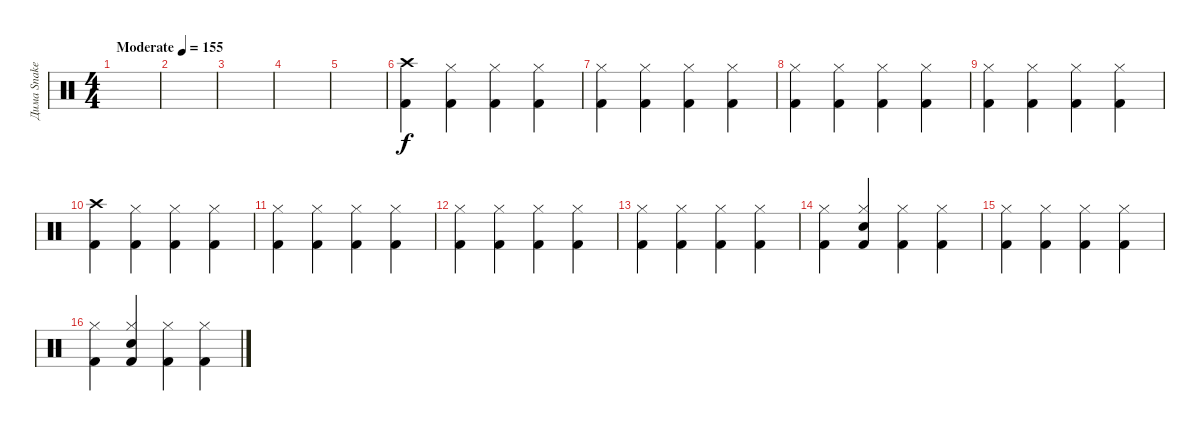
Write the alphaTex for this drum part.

\track ("Дима Snake Хакимов" "Дима Snake") {instrument percussion}
\staff {score}
\articulation defaults
\ts (4 4)
\tempo (155 "Moderate")
\clef neutral
\ks c
|
|
|
|
|
("Crash high (hit)" "Kick (hit) 2").4 ("Hi-Hat (closed)" "Kick (hit) 2").4 ("Hi-Hat (closed)" "Kick (hit) 2").4 ("Hi-Hat (closed)" "Kick (hit) 2").4 |
("Hi-Hat (closed)" "Kick (hit) 2").4 ("Hi-Hat (closed)" "Kick (hit) 2").4 ("Hi-Hat (closed)" "Kick (hit) 2").4 ("Hi-Hat (closed)" "Kick (hit) 2").4 |
("Hi-Hat (closed)" "Kick (hit) 2").4 ("Hi-Hat (closed)" "Kick (hit) 2").4 ("Hi-Hat (closed)" "Kick (hit) 2").4 ("Hi-Hat (closed)" "Kick (hit) 2").4 |
("Hi-Hat (closed)" "Kick (hit) 2").4 ("Hi-Hat (closed)" "Kick (hit) 2").4 ("Hi-Hat (closed)" "Kick (hit) 2").4 ("Hi-Hat (closed)" "Kick (hit) 2").4 |
("Crash high (hit)" "Kick (hit) 2").4 ("Hi-Hat (closed)" "Kick (hit) 2").4 ("Hi-Hat (closed)" "Kick (hit) 2").4 ("Hi-Hat (closed)" "Kick (hit) 2").4 |
("Hi-Hat (closed)" "Kick (hit) 2").4 ("Hi-Hat (closed)" "Kick (hit) 2").4 ("Hi-Hat (closed)" "Kick (hit) 2").4 ("Hi-Hat (closed)" "Kick (hit) 2").4 |
("Hi-Hat (closed)" "Kick (hit) 2").4 ("Hi-Hat (closed)" "Kick (hit) 2").4 ("Hi-Hat (closed)" "Kick (hit) 2").4 ("Hi-Hat (closed)" "Kick (hit) 2").4 |
("Hi-Hat (closed)" "Kick (hit) 2").4 ("Hi-Hat (closed)" "Kick (hit) 2").4 ("Hi-Hat (closed)" "Kick (hit) 2").4 ("Hi-Hat (closed)" "Kick (hit) 2").4 |
("Hi-Hat (closed)" "Kick (hit) 2").4 ("Hi-Hat (closed)" "Snare (hit) 2" "Kick (hit) 2").4 ("Hi-Hat (closed)" "Kick (hit) 2").4 ("Hi-Hat (closed)" "Kick (hit) 2").4 |
("Hi-Hat (closed)" "Kick (hit) 2").4 ("Hi-Hat (closed)" "Kick (hit) 2").4 ("Hi-Hat (closed)" "Kick (hit) 2").4 ("Hi-Hat (closed)" "Kick (hit) 2").4 |
("Hi-Hat (closed)" "Kick (hit) 2").4 ("Hi-Hat (closed)" "Snare (hit) 2" "Kick (hit) 2").4 ("Hi-Hat (closed)" "Kick (hit) 2").4 ("Hi-Hat (closed)" "Kick (hit) 2").4
